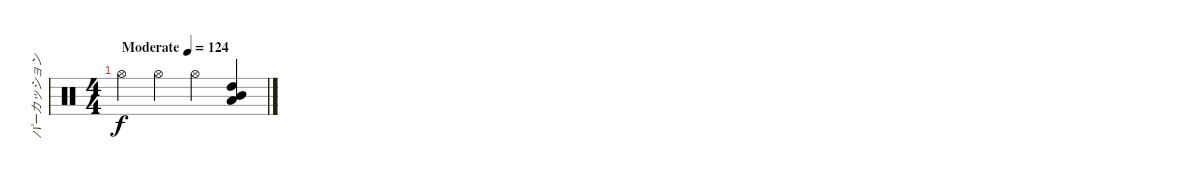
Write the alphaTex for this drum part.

\track ("パーカッション" "パーカッション") {instrument percussion}
\staff {score}
\articulation defaults
\ts (4 4)
\tempo (124 "Moderate")
\clef neutral
\ks c "Hi-Hat (open)".4{dy f} "Hi-Hat (open)".4 "Hi-Hat (open)".4
("Mid Tom (hit)" "High Tom (hit)" "Low Tom (hit)").4
